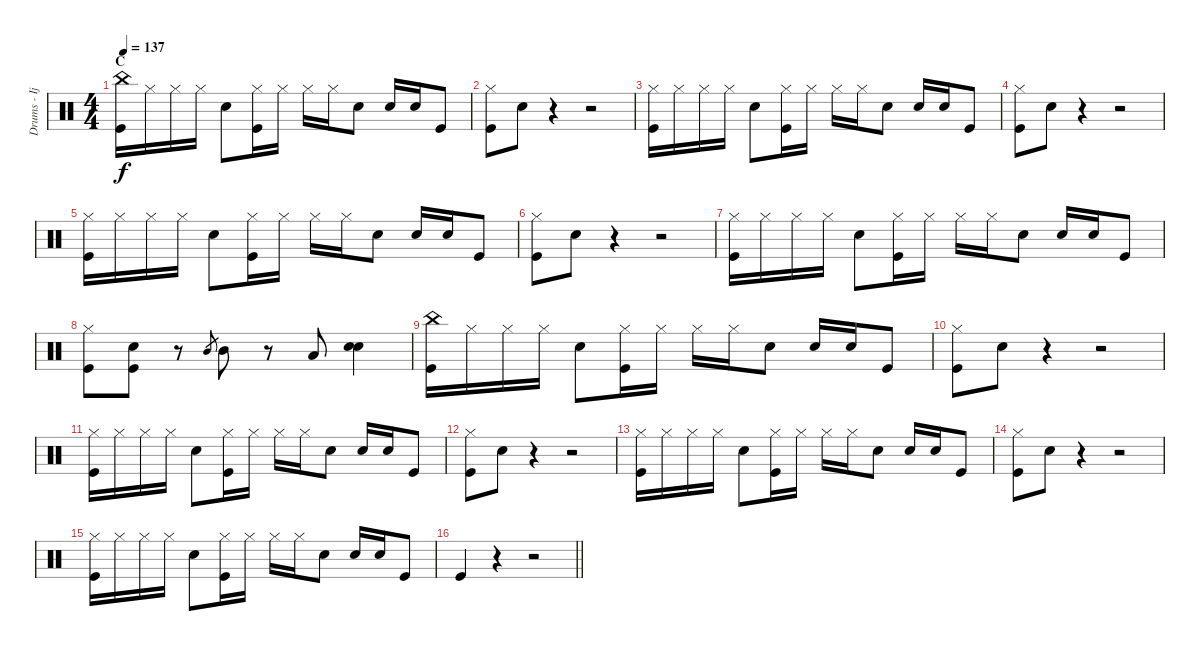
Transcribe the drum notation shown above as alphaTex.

\track ("Drums - Ijichi" "Drums - Ij") {instrument percussion}
\staff {score}
\articulation defaults
\ts (4 4)
\section ("" "C")
\tempo 137
\clef neutral
\ks c
("China (hit)" "Kick (hit)").16{dy f} "Hi-Hat (closed)".16 "Hi-Hat (closed)".16 "Hi-Hat (closed)".16 "Electric Snare (hit)".8 ("Hi-Hat (closed)" "Kick (hit)").16 "Hi-Hat (closed)".16 "Hi-Hat (closed)".16 "Hi-Hat (closed)".16 "Electric Snare (hit)".8 "Electric Snare (hit)".16 "Electric Snare (hit)".16 "Kick (hit)".8 |
("Hi-Hat (closed)" "Kick (hit)").8 "Electric Snare (hit)".8 r.4 r.2 |
("Hi-Hat (closed)" "Kick (hit)").16 "Hi-Hat (closed)".16 "Hi-Hat (closed)".16 "Hi-Hat (closed)".16 "Electric Snare (hit)".8 ("Hi-Hat (closed)" "Kick (hit)").16 "Hi-Hat (closed)".16 "Hi-Hat (closed)".16 "Hi-Hat (closed)".16 "Electric Snare (hit)".8 "Electric Snare (hit)".16 "Electric Snare (hit)".16 "Kick (hit)".8 |
("Hi-Hat (closed)" "Kick (hit)").8 "Electric Snare (hit)".8 r.4 r.2 |
("Hi-Hat (closed)" "Kick (hit)").16 "Hi-Hat (closed)".16 "Hi-Hat (closed)".16 "Hi-Hat (closed)".16 "Electric Snare (hit)".8 ("Hi-Hat (closed)" "Kick (hit)").16 "Hi-Hat (closed)".16 "Hi-Hat (closed)".16 "Hi-Hat (closed)".16 "Electric Snare (hit)".8 "Electric Snare (hit)".16 "Electric Snare (hit)".16 "Kick (hit)".8 |
("Hi-Hat (closed)" "Kick (hit)").8 "Electric Snare (hit)".8 r.4 r.2 |
("Hi-Hat (closed)" "Kick (hit)").16 "Hi-Hat (closed)".16 "Hi-Hat (closed)".16 "Hi-Hat (closed)".16 "Electric Snare (hit)".8 ("Hi-Hat (closed)" "Kick (hit)").16 "Hi-Hat (closed)".16 "Hi-Hat (closed)".16 "Hi-Hat (closed)".16 "Electric Snare (hit)".8 "Electric Snare (hit)".16 "Electric Snare (hit)".16 "Kick (hit)".8 |
("Hi-Hat (closed)" "Kick (hit)").8 ("Electric Snare (hit)" "Kick (hit)").8 r.8 "Mid Tom (hit)".8{gr} "Mid Tom (hit)".8 r.8 "Low Tom (hit)".8 ("Electric Snare (hit)" "Electric Snare (hit)").4 |
("China (hit)" "Kick (hit)").16 "Hi-Hat (closed)".16 "Hi-Hat (closed)".16 "Hi-Hat (closed)".16 "Electric Snare (hit)".8 ("Hi-Hat (closed)" "Kick (hit)").16 "Hi-Hat (closed)".16 "Hi-Hat (closed)".16 "Hi-Hat (closed)".16 "Electric Snare (hit)".8 "Electric Snare (hit)".16 "Electric Snare (hit)".16 "Kick (hit)".8 |
("Hi-Hat (closed)" "Kick (hit)").8 "Electric Snare (hit)".8 r.4 r.2 |
("Hi-Hat (closed)" "Kick (hit)").16 "Hi-Hat (closed)".16 "Hi-Hat (closed)".16 "Hi-Hat (closed)".16 "Electric Snare (hit)".8 ("Hi-Hat (closed)" "Kick (hit)").16 "Hi-Hat (closed)".16 "Hi-Hat (closed)".16 "Hi-Hat (closed)".16 "Electric Snare (hit)".8 "Electric Snare (hit)".16 "Electric Snare (hit)".16 "Kick (hit)".8 |
("Hi-Hat (closed)" "Kick (hit)").8 "Electric Snare (hit)".8 r.4 r.2 |
("Hi-Hat (closed)" "Kick (hit)").16 "Hi-Hat (closed)".16 "Hi-Hat (closed)".16 "Hi-Hat (closed)".16 "Electric Snare (hit)".8 ("Hi-Hat (closed)" "Kick (hit)").16 "Hi-Hat (closed)".16 "Hi-Hat (closed)".16 "Hi-Hat (closed)".16 "Electric Snare (hit)".8 "Electric Snare (hit)".16 "Electric Snare (hit)".16 "Kick (hit)".8 |
("Hi-Hat (closed)" "Kick (hit)").8 "Electric Snare (hit)".8 r.4 r.2 |
("Hi-Hat (closed)" "Kick (hit)").16 "Hi-Hat (closed)".16 "Hi-Hat (closed)".16 "Hi-Hat (closed)".16 "Electric Snare (hit)".8 ("Hi-Hat (closed)" "Kick (hit)").16 "Hi-Hat (closed)".16 "Hi-Hat (closed)".16 "Hi-Hat (closed)".16 "Electric Snare (hit)".8 "Electric Snare (hit)".16 "Electric Snare (hit)".16 "Kick (hit)".8 |
\barLineRight lightlight "Kick (hit)".4
r.4 r.2
